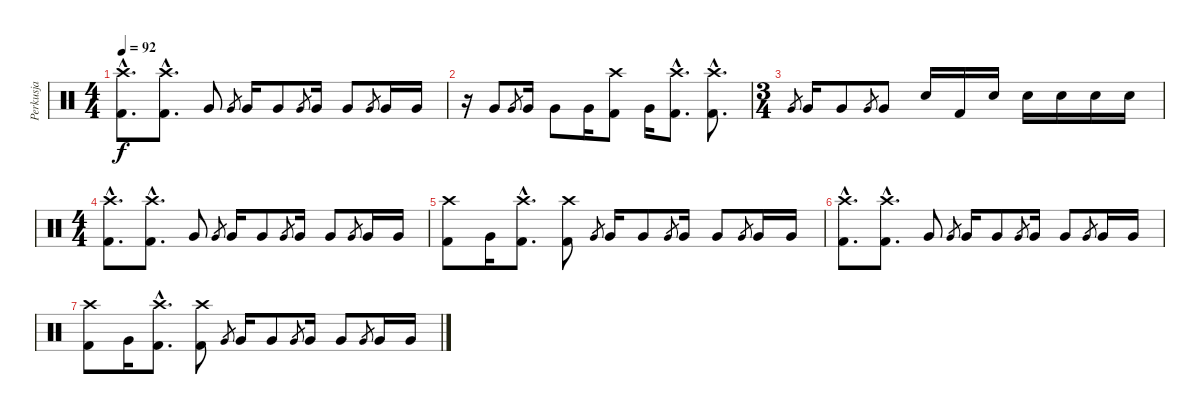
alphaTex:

\track ("Perkusja" "Perkusja") {instrument percussion}
\staff {score}
\articulation defaults
\ts (4 4)
\tempo 92
\clef neutral
\ks c
("Kick (hit) 2"{hac} "Crash high (hit)"{hac}).8{d dy f} ("Kick (hit) 2"{hac} "Crash high (hit)"{hac}).8{d} "Very Low Tom (hit)".8 "Very Low Tom (hit)".8{gr} "Very Low Tom (hit)".16 "Very Low Tom (hit)".8 "Very Low Tom (hit)".8{gr} "Very Low Tom (hit)".16 "Very Low Tom (hit)".8 "Very Low Tom (hit)".8{gr} "Very Low Tom (hit)".16 "Very Low Tom (hit)".16 |
r.16 "Very Low Tom (hit)".8 "Very Low Tom (hit)".8{gr} "Very Low Tom (hit)".16 "Very Low Tom (hit)".8 "Very Low Tom (hit)".16 ("Kick (hit) 2" "Crash high (hit)").8 "Very Low Tom (hit)".16 ("Kick (hit) 2"{hac} "Crash high (hit)"{hac}).8{d} ("Kick (hit) 2"{hac} "Crash high (hit)"{hac}).8{d} |
\ts (3 4)
"Very Low Tom (hit)".8{gr} "Very Low Tom (hit)".16 "Very Low Tom (hit)".8 "Very Low Tom (hit)".8{gr} "Very Low Tom (hit)".8 "Snare (hit) 2".16 "Kick (hit) 2".16 "Snare (hit) 2".16 "Electric Snare (hit)".16 "Electric Snare (hit)".16 "Snare (hit) 2".16 "Snare (hit) 2".16 |
\ts (4 4)
("Kick (hit) 2"{hac} "Crash high (hit)"{hac}).8{d} ("Kick (hit) 2"{hac} "Crash high (hit)"{hac}).8{d} "Very Low Tom (hit)".8 "Very Low Tom (hit)".8{gr} "Very Low Tom (hit)".16 "Very Low Tom (hit)".8 "Very Low Tom (hit)".8{gr} "Very Low Tom (hit)".16 "Very Low Tom (hit)".8 "Very Low Tom (hit)".8{gr} "Very Low Tom (hit)".16 "Very Low Tom (hit)".16 |
("Kick (hit) 2" "Crash high (hit)").8 "Very Low Tom (hit)".16 ("Kick (hit) 2"{hac} "Crash high (hit)"{hac}).8{d} ("Kick (hit) 2" "Crash high (hit)").8 "Very Low Tom (hit)".8{gr} "Very Low Tom (hit)".16 "Very Low Tom (hit)".8 "Very Low Tom (hit)".8{gr} "Very Low Tom (hit)".16 "Very Low Tom (hit)".8 "Very Low Tom (hit)".8{gr} "Very Low Tom (hit)".16 "Very Low Tom (hit)".16 |
("Kick (hit) 2"{hac} "Crash high (hit)"{hac}).8{d} ("Kick (hit) 2"{hac} "Crash high (hit)"{hac}).8{d} "Very Low Tom (hit)".8 "Very Low Tom (hit)".8{gr} "Very Low Tom (hit)".16 "Very Low Tom (hit)".8 "Very Low Tom (hit)".8{gr} "Very Low Tom (hit)".16 "Very Low Tom (hit)".8 "Very Low Tom (hit)".8{gr} "Very Low Tom (hit)".16 "Very Low Tom (hit)".16 |
("Kick (hit) 2" "Crash high (hit)").8 "Very Low Tom (hit)".16 ("Kick (hit) 2"{hac} "Crash high (hit)"{hac}).8{d} ("Kick (hit) 2" "Crash high (hit)").8 "Very Low Tom (hit)".8{gr} "Very Low Tom (hit)".16 "Very Low Tom (hit)".8 "Very Low Tom (hit)".8{gr} "Very Low Tom (hit)".16 "Very Low Tom (hit)".8 "Very Low Tom (hit)".8{gr} "Very Low Tom (hit)".16 "Very Low Tom (hit)".16
